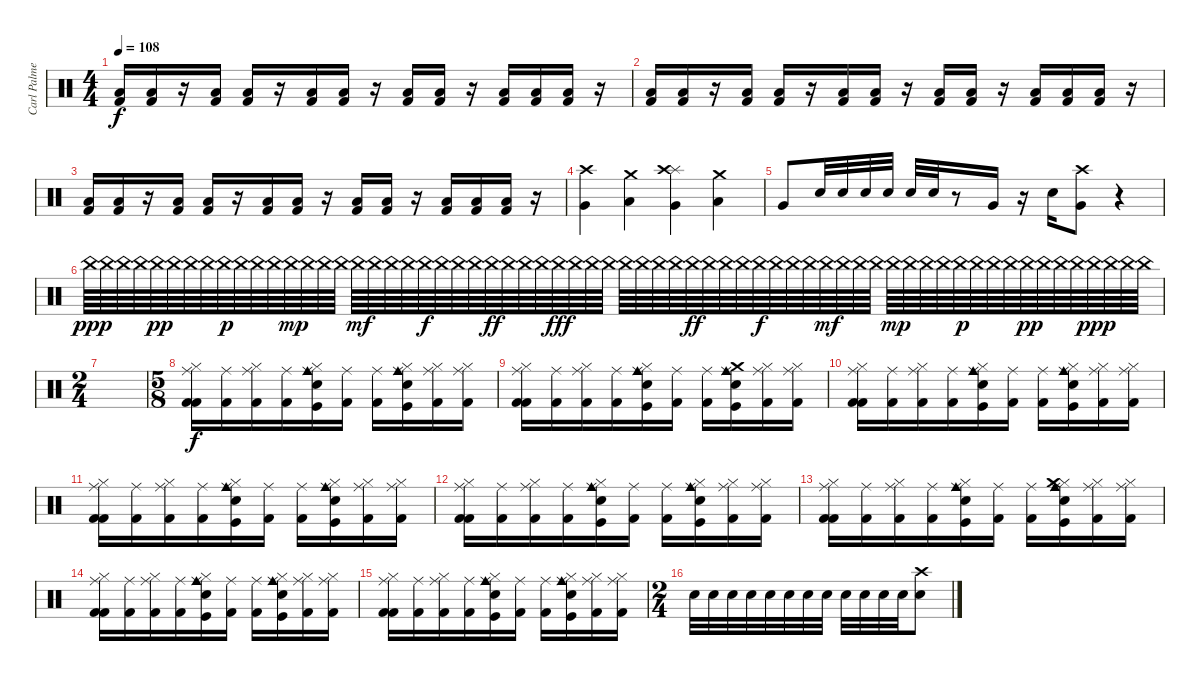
\track ("Carl Palmer (Percussion)" "Carl Palme") {instrument percussion}
\staff {score}
\articulation defaults
\ts (4 4)
\tempo 108
\clef neutral
\ks c
("Kick (hit) 2" "Low Tom (hit)").16{dy f} ("Kick (hit) 2" "Low Tom (hit)").16 r.16 ("Kick (hit) 2" "Low Tom (hit)").16 ("Kick (hit) 2" "Low Tom (hit)").16 r.16 ("Kick (hit) 2" "Low Tom (hit)").16 ("Kick (hit) 2" "Low Tom (hit)").16 r.16 ("Kick (hit) 2" "Low Tom (hit)").16 ("Kick (hit) 2" "Low Tom (hit)").16 r.16 ("Kick (hit) 2" "Low Tom (hit)").16 ("Kick (hit) 2" "Low Tom (hit)").16 ("Kick (hit) 2" "Low Tom (hit)").16 r.16 |
("Kick (hit) 2" "Low Tom (hit)").16 ("Kick (hit) 2" "Low Tom (hit)").16 r.16 ("Kick (hit) 2" "Low Tom (hit)").16 ("Kick (hit) 2" "Low Tom (hit)").16 r.16 ("Kick (hit) 2" "Low Tom (hit)").16 ("Kick (hit) 2" "Low Tom (hit)").16 r.16 ("Kick (hit) 2" "Low Tom (hit)").16 ("Kick (hit) 2" "Low Tom (hit)").16 r.16 ("Kick (hit) 2" "Low Tom (hit)").16 ("Kick (hit) 2" "Low Tom (hit)").16 ("Kick (hit) 2" "Low Tom (hit)").16 r.16 |
("Kick (hit) 2" "Low Tom (hit)").16 ("Kick (hit) 2" "Low Tom (hit)").16 r.16 ("Kick (hit) 2" "Low Tom (hit)").16 ("Kick (hit) 2" "Low Tom (hit)").16 r.16 ("Kick (hit) 2" "Low Tom (hit)").16 ("Kick (hit) 2" "Low Tom (hit)").16 r.16 ("Kick (hit) 2" "Low Tom (hit)").16 ("Kick (hit) 2" "Low Tom (hit)").16 r.16 ("Kick (hit) 2" "Low Tom (hit)").16 ("Kick (hit) 2" "Low Tom (hit)").16 ("Kick (hit) 2" "Low Tom (hit)").16 r.16 |
("Very Low Tom (hit)" "Crash high (hit)").4 ("Low Tom (hit)" "Crash medium (hit)").4 ("Very Low Tom (hit)" "Splash (hit)" "Crash high (hit)").4 ("Low Tom (hit)" "Crash medium (hit)").4 |
"Very Low Tom (hit)".8 "Electric Snare (hit)".32 "Electric Snare (hit)".32 "Electric Snare (hit)".32 "Electric Snare (hit)".32 "Electric Snare (hit)".32 "Electric Snare (hit)".32 r.8 "Very Low Tom (hit)".16 r.16 "Electric Snare (hit)".16 ("Very Low Tom (hit)" "Crash high (hit)").8 r.4 |
"China (hit)".64{dy ppp balance 16} "China (hit)".64 "China (hit)".64 "China (hit)".64 "China (hit)".64{dy pp} "China (hit)".64 "China (hit)".64 "China (hit)".64 "China (hit)".64{dy p} "China (hit)".64 "China (hit)".64 "China (hit)".64 "China (hit)".64{dy mp} "China (hit)".64 "China (hit)".64 "China (hit)".64 "China (hit)".64{dy mf} "China (hit)".64 "China (hit)".64 "China (hit)".64 "China (hit)".64{dy f} "China (hit)".64 "China (hit)".64 "China (hit)".64 "China (hit)".64{dy ff} "China (hit)".64 "China (hit)".64 "China (hit)".64 "China (hit)".64{dy fff} "China (hit)".64 "China (hit)".64 "China (hit)".64 "China (hit)".64 "China (hit)".64 "China (hit)".64 "China (hit)".64 "China (hit)".64{dy ff} "China (hit)".64 "China (hit)".64 "China (hit)".64 "China (hit)".64{dy f} "China (hit)".64 "China (hit)".64 "China (hit)".64 "China (hit)".64{dy mf} "China (hit)".64 "China (hit)".64 "China (hit)".64 "China (hit)".64{dy mp} "China (hit)".64 "China (hit)".64 "China (hit)".64 "China (hit)".64{dy p} "China (hit)".64 "China (hit)".64 "China (hit)".64 "China (hit)".64{dy pp} "China (hit)".64 "China (hit)".64 "China (hit)".64 "China (hit)".64{dy ppp} "China (hit)".64 "China (hit)".64 "China (hit)".64 |
\ts (2 4)
|
\ts (5 8)
("Hi-Hat (closed)" "Kick (hit) 2" "Kick (hit) 2" "Ride (middle)").16{dy f balance 8} ("Ride (middle)" "Kick (hit) 2").16 ("Hi-Hat (closed)" "Ride (middle)" "Kick (hit) 2").16 ("Ride (middle)" "Kick (hit) 2").16 ("Hi-Hat (closed)" "Electric Snare (hit)" "Kick (hit)" "Cowbell medium (hit)" "Ride (middle)").16 ("Ride (middle)" "Kick (hit) 2").16 ("Ride (middle)" "Kick (hit) 2").16 ("Hi-Hat (closed)" "Snare (hit) 2" "Kick (hit)" "Cowbell medium (hit)" "Ride (middle)").16 ("Hi-Hat (closed)" "Ride (middle)" "Kick (hit) 2").16 ("Hi-Hat (closed)" "Ride (middle)" "Kick (hit) 2").16 |
("Hi-Hat (closed)" "Kick (hit) 2" "Kick (hit) 2" "Ride (middle)").16 ("Ride (middle)" "Kick (hit) 2").16 ("Hi-Hat (closed)" "Ride (middle)" "Kick (hit) 2").16 ("Ride (middle)" "Kick (hit) 2").16 ("Hi-Hat (closed)" "Electric Snare (hit)" "Kick (hit)" "Cowbell medium (hit)" "Ride (middle)").16 ("Ride (middle)" "Kick (hit) 2").16 ("Ride (middle)" "Kick (hit) 2").16 ("Crash medium (hit)" "Snare (hit) 2" "Kick (hit)" "Cowbell medium (hit)" "Ride (middle)").16 ("Hi-Hat (closed)" "Ride (middle)" "Kick (hit) 2").16 ("Hi-Hat (closed)" "Ride (middle)" "Kick (hit) 2").16 |
("Hi-Hat (closed)" "Kick (hit) 2" "Kick (hit) 2" "Ride (middle)").16 ("Ride (middle)" "Kick (hit) 2").16 ("Hi-Hat (closed)" "Ride (middle)" "Kick (hit) 2").16 ("Ride (middle)" "Kick (hit) 2").16 ("Hi-Hat (closed)" "Electric Snare (hit)" "Kick (hit)" "Cowbell medium (hit)" "Ride (middle)").16 ("Ride (middle)" "Kick (hit) 2").16 ("Ride (middle)" "Kick (hit) 2").16 ("Hi-Hat (closed)" "Snare (hit) 2" "Kick (hit)" "Cowbell medium (hit)" "Ride (middle)").16 ("Hi-Hat (closed)" "Ride (middle)" "Kick (hit) 2").16 ("Hi-Hat (closed)" "Ride (middle)" "Kick (hit) 2").16 |
("Hi-Hat (closed)" "Kick (hit) 2" "Kick (hit) 2" "Ride (middle)").16 ("Ride (middle)" "Kick (hit) 2").16 ("Hi-Hat (closed)" "Ride (middle)" "Kick (hit) 2").16 ("Ride (middle)" "Kick (hit) 2").16 ("Hi-Hat (closed)" "Electric Snare (hit)" "Kick (hit)" "Cowbell medium (hit)" "Ride (middle)").16 ("Ride (middle)" "Kick (hit) 2").16 ("Ride (middle)" "Kick (hit) 2").16 ("Hi-Hat (closed)" "Snare (hit) 2" "Kick (hit)" "Cowbell medium (hit)" "Ride (middle)").16 ("Hi-Hat (closed)" "Ride (middle)" "Kick (hit) 2").16 ("Hi-Hat (closed)" "Ride (middle)" "Kick (hit) 2").16 |
("Hi-Hat (closed)" "Kick (hit) 2" "Kick (hit) 2" "Ride (middle)").16 ("Ride (middle)" "Kick (hit) 2").16 ("Hi-Hat (closed)" "Ride (middle)" "Kick (hit) 2").16 ("Ride (middle)" "Kick (hit) 2").16 ("Hi-Hat (closed)" "Electric Snare (hit)" "Kick (hit)" "Cowbell medium (hit)" "Ride (middle)").16 ("Ride (middle)" "Kick (hit) 2").16 ("Ride (middle)" "Kick (hit) 2").16 ("Hi-Hat (closed)" "Snare (hit) 2" "Kick (hit)" "Cowbell medium (hit)" "Ride (middle)").16 ("Hi-Hat (closed)" "Ride (middle)" "Kick (hit) 2").16 ("Hi-Hat (closed)" "Ride (middle)" "Kick (hit) 2").16 |
("Hi-Hat (closed)" "Kick (hit) 2" "Kick (hit) 2" "Ride (middle)").16 ("Ride (middle)" "Kick (hit) 2").16 ("Hi-Hat (closed)" "Ride (middle)" "Kick (hit) 2").16 ("Ride (middle)" "Kick (hit) 2").16 ("Hi-Hat (closed)" "Electric Snare (hit)" "Kick (hit)" "Cowbell medium (hit)" "Ride (middle)").16 ("Ride (middle)" "Kick (hit) 2").16 ("Ride (middle)" "Kick (hit) 2").16 ("Hi-Hat (closed)" "Snare (hit) 2" "Kick (hit)" "Crash medium (hit)" "Cowbell medium (hit)" "Ride (middle)").16 ("Hi-Hat (closed)" "Ride (middle)" "Kick (hit) 2").16 ("Hi-Hat (closed)" "Ride (middle)" "Kick (hit) 2").16 |
("Hi-Hat (closed)" "Kick (hit) 2" "Kick (hit) 2" "Ride (middle)").16 ("Ride (middle)" "Kick (hit) 2").16 ("Hi-Hat (closed)" "Ride (middle)" "Kick (hit) 2").16 ("Ride (middle)" "Kick (hit) 2").16 ("Hi-Hat (closed)" "Electric Snare (hit)" "Kick (hit)" "Cowbell medium (hit)" "Ride (middle)").16 ("Ride (middle)" "Kick (hit) 2").16 ("Ride (middle)" "Kick (hit) 2").16 ("Hi-Hat (closed)" "Snare (hit) 2" "Kick (hit)" "Cowbell medium (hit)" "Ride (middle)").16 ("Hi-Hat (closed)" "Ride (middle)" "Kick (hit) 2").16 ("Hi-Hat (closed)" "Ride (middle)" "Kick (hit) 2").16 |
("Hi-Hat (closed)" "Kick (hit) 2" "Kick (hit) 2" "Ride (middle)").16 ("Ride (middle)" "Kick (hit) 2").16 ("Hi-Hat (closed)" "Ride (middle)" "Kick (hit) 2").16 ("Ride (middle)" "Kick (hit) 2").16 ("Hi-Hat (closed)" "Electric Snare (hit)" "Kick (hit)" "Cowbell medium (hit)" "Ride (middle)").16 ("Ride (middle)" "Kick (hit) 2").16 ("Ride (middle)" "Kick (hit) 2").16 ("Hi-Hat (closed)" "Snare (hit) 2" "Kick (hit)" "Cowbell medium (hit)" "Ride (middle)").16 ("Hi-Hat (closed)" "Ride (middle)" "Kick (hit) 2").16 ("Hi-Hat (closed)" "Ride (middle)" "Kick (hit) 2").16 |
\ts (2 4)
"Electric Snare (hit)".32 "Electric Snare (hit)".32 "Electric Snare (hit)".32 "Electric Snare (hit)".32 "Electric Snare (hit)".32 "Electric Snare (hit)".32 "Electric Snare (hit)".32 "Electric Snare (hit)".32 "Electric Snare (hit)".32 "Electric Snare (hit)".32 "Electric Snare (hit)".32 "Electric Snare (hit)".32 ("Snare (hit) 2" "Crash high (hit)").8
